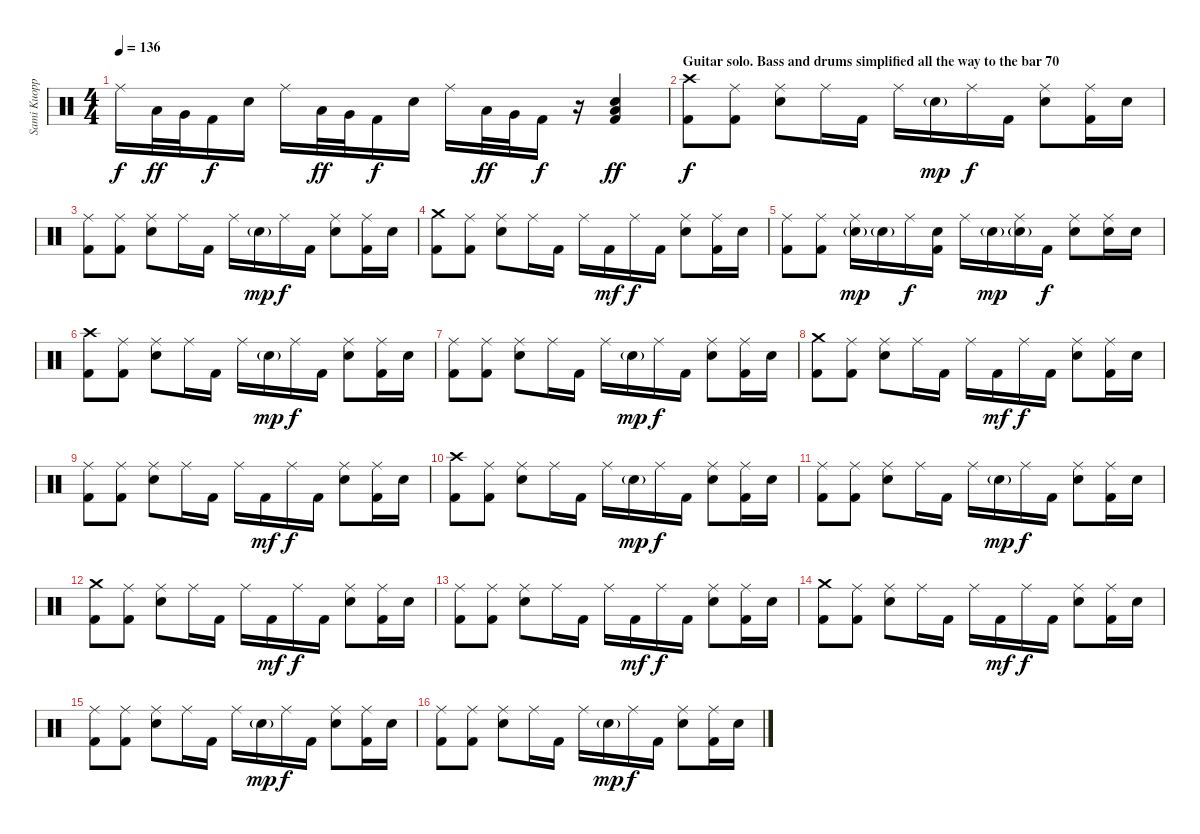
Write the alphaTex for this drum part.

\track ("Sami Kuoppamäki - Drums" "Sami Kuopp") {instrument percussion}
\staff {score}
\articulation defaults
\ts (4 4)
\tempo 136
\clef neutral
\ks c "Ride (middle)".16{dy f} "Low Tom (hit)".32{dy ff} "Very Low Tom (hit)".32 "Kick (hit) 2".16{dy f} "Snare (hit) 2".16 "Ride (middle)".16 "Low Tom (hit)".32{dy ff} "Very Low Tom (hit)".32 "Kick (hit) 2".16{dy f} "Snare (hit) 2".16 "Ride (middle)".16 "Low Tom (hit)".32{dy ff} "Very Low Tom (hit)".32 "Kick (hit) 2".16{dy f}
r.16 ("Snare (hit) 2" "Low Floor Tom (hit)" "Kick (hit) 2").4{dy ff} |
\section ("" "Guitar solo. Bass and drums simplified all the way to the bar 70")
("Crash high (hit)" "Kick (hit) 2").8{dy f} ("Ride (middle)" "Kick (hit) 2").8 ("Ride (middle)" "Snare (hit) 2").8 "Ride (middle)".16 "Kick (hit) 2".16 "Ride (middle)".16 "Snare (hit) 2"{g}.16{dy mp} "Ride (middle)".16{dy f} "Kick (hit) 2".16 ("Ride (middle)" "Snare (hit) 2").8 ("Ride (middle)" "Kick (hit) 2").16 "Snare (hit) 2".16 |
("Ride (middle)" "Kick (hit) 2").8 ("Ride (middle)" "Kick (hit) 2").8 ("Ride (middle)" "Snare (hit) 2").8 "Ride (middle)".16 "Kick (hit) 2".16 "Ride (middle)".16 "Snare (hit) 2"{g}.16{dy mp} "Ride (middle)".16{dy f} "Kick (hit) 2".16 ("Ride (middle)" "Snare (hit) 2").8 ("Ride (middle)" "Kick (hit) 2").16 "Snare (hit) 2".16 |
("Crash medium (hit)" "Kick (hit) 2").8 ("Ride (middle)" "Kick (hit) 2").8 ("Ride (middle)" "Snare (hit) 2").8 "Ride (middle)".16 "Kick (hit) 2".16 "Ride (middle)".16 "Kick (hit) 2".16{dy mf} "Ride (middle)".16{dy f} "Kick (hit) 2".16 ("Ride (middle)" "Snare (hit) 2").8 ("Ride (middle)" "Kick (hit) 2").16 "Snare (hit) 2".16 |
("Ride (middle)" "Kick (hit) 2").8 ("Ride (middle)" "Kick (hit) 2").8 ("Ride (middle)" "Snare (hit) 2"{g}).16{dy mp} "Snare (hit) 2"{g}.16 "Ride (middle)".16{dy f} ("Snare (hit) 2" "Kick (hit) 2").16 "Ride (middle)".16 "Snare (hit) 2"{g}.16{dy mp} ("Ride (middle)" "Snare (hit) 2"{g}).16 "Kick (hit) 2".16{dy f} ("Ride (middle)" "Snare (hit) 2").8 ("Ride (middle)" "Snare (hit) 2").16 "Snare (hit) 2".16 |
("Crash high (hit)" "Kick (hit) 2").8 ("Ride (middle)" "Kick (hit) 2").8 ("Ride (middle)" "Snare (hit) 2").8 "Ride (middle)".16 "Kick (hit) 2".16 "Ride (middle)".16 "Snare (hit) 2"{g}.16{dy mp} "Ride (middle)".16{dy f} "Kick (hit) 2".16 ("Ride (middle)" "Snare (hit) 2").8 ("Ride (middle)" "Kick (hit) 2").16 "Snare (hit) 2".16 |
("Ride (middle)" "Kick (hit) 2").8 ("Ride (middle)" "Kick (hit) 2").8 ("Ride (middle)" "Snare (hit) 2").8 "Ride (middle)".16 "Kick (hit) 2".16 "Ride (middle)".16 "Snare (hit) 2"{g}.16{dy mp} "Ride (middle)".16{dy f} "Kick (hit) 2".16 ("Ride (middle)" "Snare (hit) 2").8 ("Ride (middle)" "Kick (hit) 2").16 "Snare (hit) 2".16 |
("Crash medium (hit)" "Kick (hit) 2").8 ("Ride (middle)" "Kick (hit) 2").8 ("Ride (middle)" "Snare (hit) 2").8 "Ride (middle)".16 "Kick (hit) 2".16 "Ride (middle)".16 "Kick (hit) 2".16{dy mf} "Ride (middle)".16{dy f} "Kick (hit) 2".16 ("Ride (middle)" "Snare (hit) 2").8 ("Ride (middle)" "Kick (hit) 2").16 "Snare (hit) 2".16 |
("Ride (middle)" "Kick (hit) 2").8 ("Ride (middle)" "Kick (hit) 2").8 ("Ride (middle)" "Snare (hit) 2").8 "Ride (middle)".16 "Kick (hit) 2".16 "Ride (middle)".16 "Kick (hit) 2".16{dy mf} "Ride (middle)".16{dy f} "Kick (hit) 2".16 ("Ride (middle)" "Snare (hit) 2").8 ("Ride (middle)" "Kick (hit) 2").16 "Snare (hit) 2".16 |
("Crash high (hit)" "Kick (hit) 2").8 ("Ride (middle)" "Kick (hit) 2").8 ("Ride (middle)" "Snare (hit) 2").8 "Ride (middle)".16 "Kick (hit) 2".16 "Ride (middle)".16 "Snare (hit) 2"{g}.16{dy mp} "Ride (middle)".16{dy f} "Kick (hit) 2".16 ("Ride (middle)" "Snare (hit) 2").8 ("Ride (middle)" "Kick (hit) 2").16 "Snare (hit) 2".16 |
("Ride (middle)" "Kick (hit) 2").8 ("Ride (middle)" "Kick (hit) 2").8 ("Ride (middle)" "Snare (hit) 2").8 "Ride (middle)".16 "Kick (hit) 2".16 "Ride (middle)".16 "Snare (hit) 2"{g}.16{dy mp} "Ride (middle)".16{dy f} "Kick (hit) 2".16 ("Ride (middle)" "Snare (hit) 2").8 ("Ride (middle)" "Kick (hit) 2").16 "Snare (hit) 2".16 |
("Crash medium (hit)" "Kick (hit) 2").8 ("Ride (middle)" "Kick (hit) 2").8 ("Ride (middle)" "Snare (hit) 2").8 "Ride (middle)".16 "Kick (hit) 2".16 "Ride (middle)".16 "Kick (hit) 2".16{dy mf} "Ride (middle)".16{dy f} "Kick (hit) 2".16 ("Ride (middle)" "Snare (hit) 2").8 ("Ride (middle)" "Kick (hit) 2").16 "Snare (hit) 2".16 |
("Ride (middle)" "Kick (hit) 2").8 ("Ride (middle)" "Kick (hit) 2").8 ("Ride (middle)" "Snare (hit) 2").8 "Ride (middle)".16 "Kick (hit) 2".16 "Ride (middle)".16 "Kick (hit) 2".16{dy mf} "Ride (middle)".16{dy f} "Kick (hit) 2".16 ("Ride (middle)" "Snare (hit) 2").8 ("Ride (middle)" "Kick (hit) 2").16 "Snare (hit) 2".16 |
("Crash medium (hit)" "Kick (hit) 2").8 ("Ride (middle)" "Kick (hit) 2").8 ("Ride (middle)" "Snare (hit) 2").8 "Ride (middle)".16 "Kick (hit) 2".16 "Ride (middle)".16 "Kick (hit) 2".16{dy mf} "Ride (middle)".16{dy f} "Kick (hit) 2".16 ("Ride (middle)" "Snare (hit) 2").8 ("Ride (middle)" "Kick (hit) 2").16 "Snare (hit) 2".16 |
("Ride (middle)" "Kick (hit) 2").8 ("Ride (middle)" "Kick (hit) 2").8 ("Ride (middle)" "Snare (hit) 2").8 "Ride (middle)".16 "Kick (hit) 2".16 "Ride (middle)".16 "Snare (hit) 2"{g}.16{dy mp} "Ride (middle)".16{dy f} "Kick (hit) 2".16 ("Ride (middle)" "Snare (hit) 2").8 ("Ride (middle)" "Kick (hit) 2").16 "Snare (hit) 2".16 |
("Ride (middle)" "Kick (hit) 2").8 ("Ride (middle)" "Kick (hit) 2").8 ("Ride (middle)" "Snare (hit) 2").8 "Ride (middle)".16 "Kick (hit) 2".16 "Ride (middle)".16 "Snare (hit) 2"{g}.16{dy mp} "Ride (middle)".16{dy f} "Kick (hit) 2".16 ("Ride (middle)" "Snare (hit) 2").8 ("Ride (middle)" "Kick (hit) 2").16 "Snare (hit) 2".16
